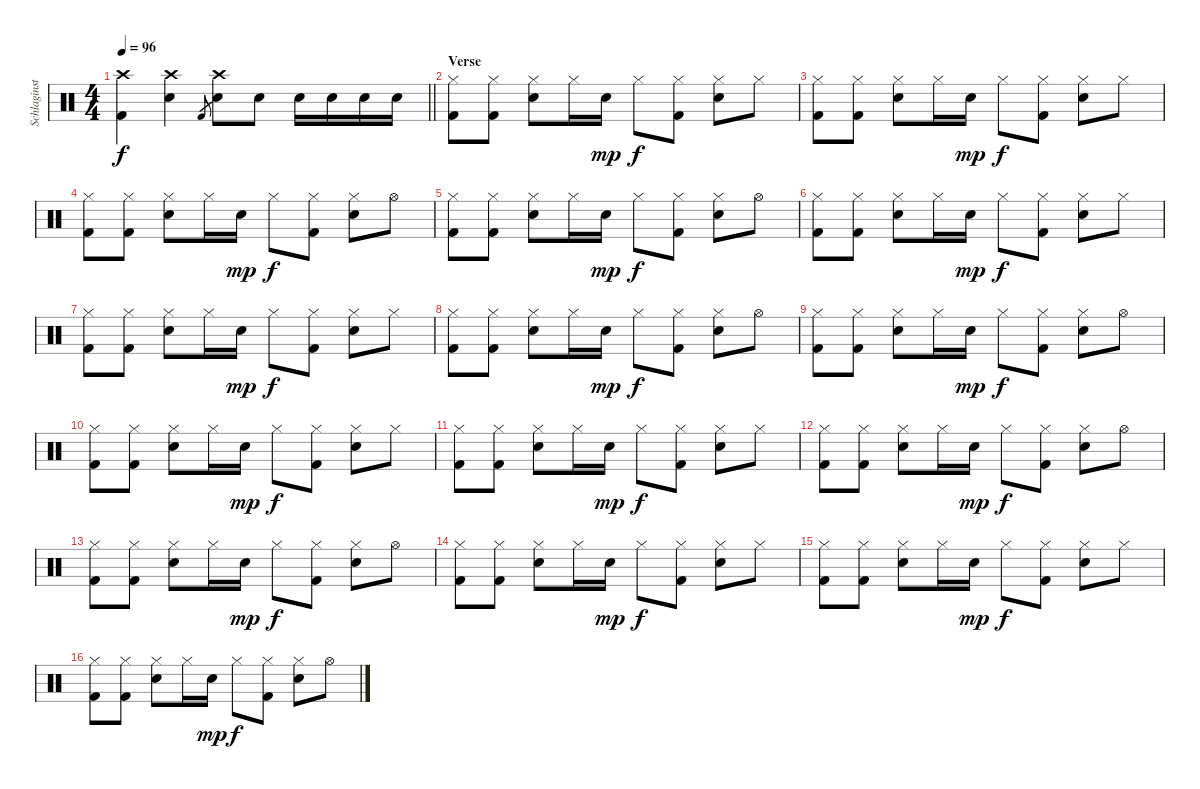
\track ("Schlaginstrumente - Auswahl" "Schlaginst") {instrument percussion}
\staff {score}
\articulation defaults
\ts (4 4)
\tempo 96
\clef neutral
\barLineRight lightlight
\ks c
("Crash high (hit)" "Kick (hit) 2").4{dy f} ("Crash high (hit)" "Electric Snare (hit)").4 "Kick (hit) 2".8{gr} ("Crash high (hit)" "Electric Snare (hit)").8 "Electric Snare (hit)".8 "Electric Snare (hit)".16 "Electric Snare (hit)".16 "Electric Snare (hit)".16 "Electric Snare (hit)".16 |
\section ("" "Verse")
("Hi-Hat (closed)" "Kick (hit) 2").8 ("Hi-Hat (closed)" "Kick (hit) 2").8 ("Hi-Hat (closed)" "Electric Snare (hit)").8 "Hi-Hat (closed)".16 "Electric Snare (hit)".16{dy mp} "Hi-Hat (closed)".8{dy f} ("Hi-Hat (closed)" "Kick (hit) 2").8 ("Hi-Hat (closed)" "Electric Snare (hit)").8 "Hi-Hat (closed)".8 |
("Hi-Hat (closed)" "Kick (hit) 2").8 ("Hi-Hat (closed)" "Kick (hit) 2").8 ("Hi-Hat (closed)" "Electric Snare (hit)").8 "Hi-Hat (closed)".16 "Electric Snare (hit)".16{dy mp} "Hi-Hat (closed)".8{dy f} ("Hi-Hat (closed)" "Kick (hit) 2").8 ("Hi-Hat (closed)" "Electric Snare (hit)").8 "Hi-Hat (closed)".8 |
("Hi-Hat (closed)" "Kick (hit) 2").8 ("Hi-Hat (closed)" "Kick (hit) 2").8 ("Hi-Hat (closed)" "Electric Snare (hit)").8 "Hi-Hat (closed)".16 "Electric Snare (hit)".16{dy mp} "Hi-Hat (closed)".8{dy f} ("Hi-Hat (closed)" "Kick (hit) 2").8 ("Hi-Hat (closed)" "Electric Snare (hit)").8 "Hi-Hat (open)".8 |
("Hi-Hat (closed)" "Kick (hit) 2").8 ("Hi-Hat (closed)" "Kick (hit) 2").8 ("Hi-Hat (closed)" "Electric Snare (hit)").8 "Hi-Hat (closed)".16 "Electric Snare (hit)".16{dy mp} "Hi-Hat (closed)".8{dy f} ("Hi-Hat (closed)" "Kick (hit) 2").8 ("Hi-Hat (closed)" "Electric Snare (hit)").8 "Hi-Hat (open)".8 |
("Hi-Hat (closed)" "Kick (hit) 2").8 ("Hi-Hat (closed)" "Kick (hit) 2").8 ("Hi-Hat (closed)" "Electric Snare (hit)").8 "Hi-Hat (closed)".16 "Electric Snare (hit)".16{dy mp} "Hi-Hat (closed)".8{dy f} ("Hi-Hat (closed)" "Kick (hit) 2").8 ("Hi-Hat (closed)" "Electric Snare (hit)").8 "Hi-Hat (closed)".8 |
("Hi-Hat (closed)" "Kick (hit) 2").8 ("Hi-Hat (closed)" "Kick (hit) 2").8 ("Hi-Hat (closed)" "Electric Snare (hit)").8 "Hi-Hat (closed)".16 "Electric Snare (hit)".16{dy mp} "Hi-Hat (closed)".8{dy f} ("Hi-Hat (closed)" "Kick (hit) 2").8 ("Hi-Hat (closed)" "Electric Snare (hit)").8 "Hi-Hat (closed)".8 |
("Hi-Hat (closed)" "Kick (hit) 2").8 ("Hi-Hat (closed)" "Kick (hit) 2").8 ("Hi-Hat (closed)" "Electric Snare (hit)").8 "Hi-Hat (closed)".16 "Electric Snare (hit)".16{dy mp} "Hi-Hat (closed)".8{dy f} ("Hi-Hat (closed)" "Kick (hit) 2").8 ("Hi-Hat (closed)" "Electric Snare (hit)").8 "Hi-Hat (open)".8 |
("Hi-Hat (closed)" "Kick (hit) 2").8 ("Hi-Hat (closed)" "Kick (hit) 2").8 ("Hi-Hat (closed)" "Electric Snare (hit)").8 "Hi-Hat (closed)".16 "Electric Snare (hit)".16{dy mp} "Hi-Hat (closed)".8{dy f} ("Hi-Hat (closed)" "Kick (hit) 2").8 ("Hi-Hat (closed)" "Electric Snare (hit)").8 "Hi-Hat (open)".8 |
("Hi-Hat (closed)" "Kick (hit) 2").8 ("Hi-Hat (closed)" "Kick (hit) 2").8 ("Hi-Hat (closed)" "Electric Snare (hit)").8 "Hi-Hat (closed)".16 "Electric Snare (hit)".16{dy mp} "Hi-Hat (closed)".8{dy f} ("Hi-Hat (closed)" "Kick (hit) 2").8 ("Hi-Hat (closed)" "Electric Snare (hit)").8 "Hi-Hat (closed)".8 |
("Hi-Hat (closed)" "Kick (hit) 2").8 ("Hi-Hat (closed)" "Kick (hit) 2").8 ("Hi-Hat (closed)" "Electric Snare (hit)").8 "Hi-Hat (closed)".16 "Electric Snare (hit)".16{dy mp} "Hi-Hat (closed)".8{dy f} ("Hi-Hat (closed)" "Kick (hit) 2").8 ("Hi-Hat (closed)" "Electric Snare (hit)").8 "Hi-Hat (closed)".8 |
("Hi-Hat (closed)" "Kick (hit) 2").8 ("Hi-Hat (closed)" "Kick (hit) 2").8 ("Hi-Hat (closed)" "Electric Snare (hit)").8 "Hi-Hat (closed)".16 "Electric Snare (hit)".16{dy mp} "Hi-Hat (closed)".8{dy f} ("Hi-Hat (closed)" "Kick (hit) 2").8 ("Hi-Hat (closed)" "Electric Snare (hit)").8 "Hi-Hat (open)".8 |
("Hi-Hat (closed)" "Kick (hit) 2").8 ("Hi-Hat (closed)" "Kick (hit) 2").8 ("Hi-Hat (closed)" "Electric Snare (hit)").8 "Hi-Hat (closed)".16 "Electric Snare (hit)".16{dy mp} "Hi-Hat (closed)".8{dy f} ("Hi-Hat (closed)" "Kick (hit) 2").8 ("Hi-Hat (closed)" "Electric Snare (hit)").8 "Hi-Hat (open)".8 |
("Hi-Hat (closed)" "Kick (hit) 2").8 ("Hi-Hat (closed)" "Kick (hit) 2").8 ("Hi-Hat (closed)" "Electric Snare (hit)").8 "Hi-Hat (closed)".16 "Electric Snare (hit)".16{dy mp} "Hi-Hat (closed)".8{dy f} ("Hi-Hat (closed)" "Kick (hit) 2").8 ("Hi-Hat (closed)" "Electric Snare (hit)").8 "Hi-Hat (closed)".8 |
("Hi-Hat (closed)" "Kick (hit) 2").8 ("Hi-Hat (closed)" "Kick (hit) 2").8 ("Hi-Hat (closed)" "Electric Snare (hit)").8 "Hi-Hat (closed)".16 "Electric Snare (hit)".16{dy mp} "Hi-Hat (closed)".8{dy f} ("Hi-Hat (closed)" "Kick (hit) 2").8 ("Hi-Hat (closed)" "Electric Snare (hit)").8 "Hi-Hat (closed)".8 |
("Hi-Hat (closed)" "Kick (hit) 2").8 ("Hi-Hat (closed)" "Kick (hit) 2").8 ("Hi-Hat (closed)" "Electric Snare (hit)").8 "Hi-Hat (closed)".16 "Electric Snare (hit)".16{dy mp} "Hi-Hat (closed)".8{dy f} ("Hi-Hat (closed)" "Kick (hit) 2").8 ("Hi-Hat (closed)" "Electric Snare (hit)").8 "Hi-Hat (open)".8
